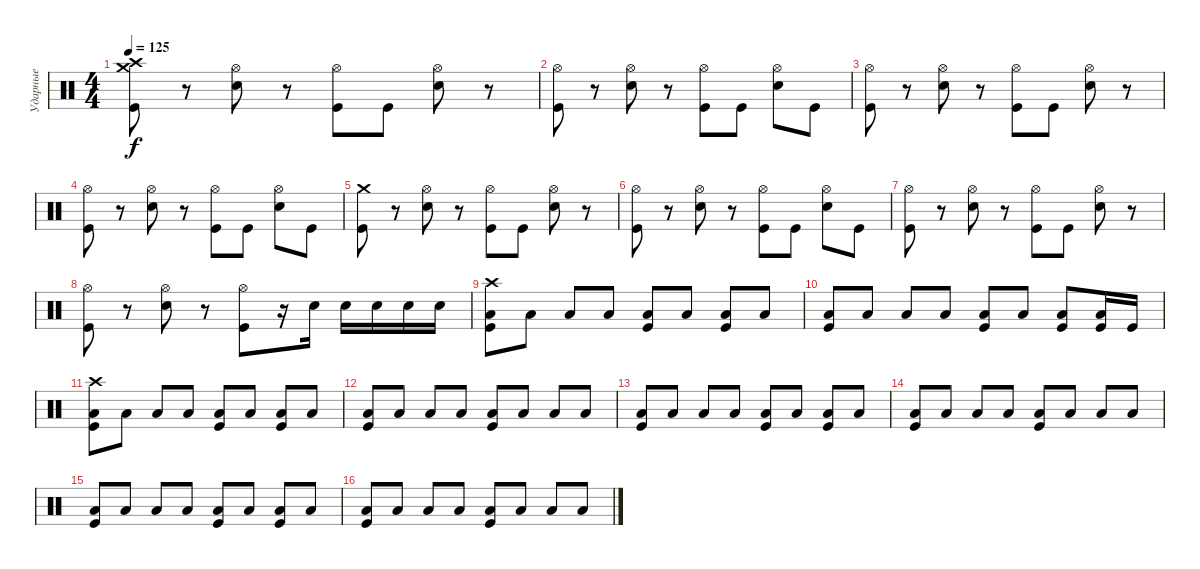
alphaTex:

\track ("Ударные" "Ударные") {instrument percussion}
\staff {score}
\articulation defaults
\ts (4 4)
\tempo 125
\clef neutral
\ks c
("Crash medium (hit)" "Crash high (hit)" "Kick (hit)").8{dy f} r.8 ("Hi-Hat (open)" "Electric Snare (hit)").8 r.8 ("Hi-Hat (open)" "Kick (hit)").8 "Kick (hit)".8 ("Hi-Hat (open)" "Electric Snare (hit)").8 r.8 |
("Hi-Hat (open)" "Kick (hit)").8 r.8 ("Hi-Hat (open)" "Electric Snare (hit)").8 r.8 ("Hi-Hat (open)" "Kick (hit)").8 "Kick (hit)".8 ("Hi-Hat (open)" "Electric Snare (hit)").8 "Kick (hit)".8 |
("Hi-Hat (open)" "Kick (hit)").8 r.8 ("Hi-Hat (open)" "Electric Snare (hit)").8 r.8 ("Hi-Hat (open)" "Kick (hit)").8 "Kick (hit)".8 ("Hi-Hat (open)" "Electric Snare (hit)").8 r.8 |
("Hi-Hat (open)" "Kick (hit)").8 r.8 ("Hi-Hat (open)" "Electric Snare (hit)").8 r.8 ("Hi-Hat (open)" "Kick (hit)").8 "Kick (hit)".8 ("Hi-Hat (open)" "Electric Snare (hit)").8 "Kick (hit)".8 |
("Crash medium (hit)" "Kick (hit)").8 r.8 ("Hi-Hat (open)" "Electric Snare (hit)").8 r.8 ("Hi-Hat (open)" "Kick (hit)").8 "Kick (hit)".8 ("Hi-Hat (open)" "Electric Snare (hit)").8 r.8 |
("Hi-Hat (open)" "Kick (hit)").8 r.8 ("Hi-Hat (open)" "Electric Snare (hit)").8 r.8 ("Hi-Hat (open)" "Kick (hit)").8 "Kick (hit)".8 ("Hi-Hat (open)" "Electric Snare (hit)").8 "Kick (hit)".8 |
("Hi-Hat (open)" "Kick (hit)").8 r.8 ("Hi-Hat (open)" "Electric Snare (hit)").8 r.8 ("Hi-Hat (open)" "Kick (hit)").8 "Kick (hit)".8 ("Hi-Hat (open)" "Electric Snare (hit)").8 r.8 |
("Hi-Hat (open)" "Kick (hit)").8 r.8 ("Hi-Hat (open)" "Electric Snare (hit)").8 r.8 ("Hi-Hat (open)" "Kick (hit)").8 r.16 "Electric Snare (hit)".16 "Electric Snare (hit)".16 "Electric Snare (hit)".16 "Electric Snare (hit)".16 "Electric Snare (hit)".16 |
("Crash high (hit)" "Low Floor Tom (hit)" "Kick (hit)").8 "Low Floor Tom (hit)".8 "Low Floor Tom (hit)".8 "Low Floor Tom (hit)".8 ("Low Floor Tom (hit)" "Kick (hit)").8 "Low Floor Tom (hit)".8 ("Low Floor Tom (hit)" "Kick (hit)").8 "Low Floor Tom (hit)".8 |
("Low Floor Tom (hit)" "Kick (hit)").8 "Low Floor Tom (hit)".8 "Low Floor Tom (hit)".8 "Low Floor Tom (hit)".8 ("Low Floor Tom (hit)" "Kick (hit)").8 "Low Floor Tom (hit)".8 ("Low Floor Tom (hit)" "Kick (hit)").8 ("Low Floor Tom (hit)" "Kick (hit)").16 "Kick (hit)".16 |
("Crash high (hit)" "Low Floor Tom (hit)" "Kick (hit)").8 "Low Floor Tom (hit)".8 "Low Floor Tom (hit)".8 "Low Floor Tom (hit)".8 ("Low Floor Tom (hit)" "Kick (hit)").8 "Low Floor Tom (hit)".8 ("Low Floor Tom (hit)" "Kick (hit)").8 "Low Floor Tom (hit)".8 |
("Low Floor Tom (hit)" "Kick (hit)").8 "Low Floor Tom (hit)".8 "Low Floor Tom (hit)".8 "Low Floor Tom (hit)".8 ("Low Floor Tom (hit)" "Kick (hit)").8 "Low Floor Tom (hit)".8 "Low Floor Tom (hit)".8 "Low Floor Tom (hit)".8 |
("Low Floor Tom (hit)" "Kick (hit)").8 "Low Floor Tom (hit)".8 "Low Floor Tom (hit)".8 "Low Floor Tom (hit)".8 ("Low Floor Tom (hit)" "Kick (hit)").8 "Low Floor Tom (hit)".8 ("Low Floor Tom (hit)" "Kick (hit)").8 "Low Floor Tom (hit)".8 |
("Low Floor Tom (hit)" "Kick (hit)").8 "Low Floor Tom (hit)".8 "Low Floor Tom (hit)".8 "Low Floor Tom (hit)".8 ("Low Floor Tom (hit)" "Kick (hit)").8 "Low Floor Tom (hit)".8 "Low Floor Tom (hit)".8 "Low Floor Tom (hit)".8 |
("Low Floor Tom (hit)" "Kick (hit)").8 "Low Floor Tom (hit)".8 "Low Floor Tom (hit)".8 "Low Floor Tom (hit)".8 ("Low Floor Tom (hit)" "Kick (hit)").8 "Low Floor Tom (hit)".8 ("Low Floor Tom (hit)" "Kick (hit)").8 "Low Floor Tom (hit)".8 |
("Low Floor Tom (hit)" "Kick (hit)").8 "Low Floor Tom (hit)".8 "Low Floor Tom (hit)".8 "Low Floor Tom (hit)".8 ("Low Floor Tom (hit)" "Kick (hit)").8 "Low Floor Tom (hit)".8 "Low Floor Tom (hit)".8 "Low Floor Tom (hit)".8
